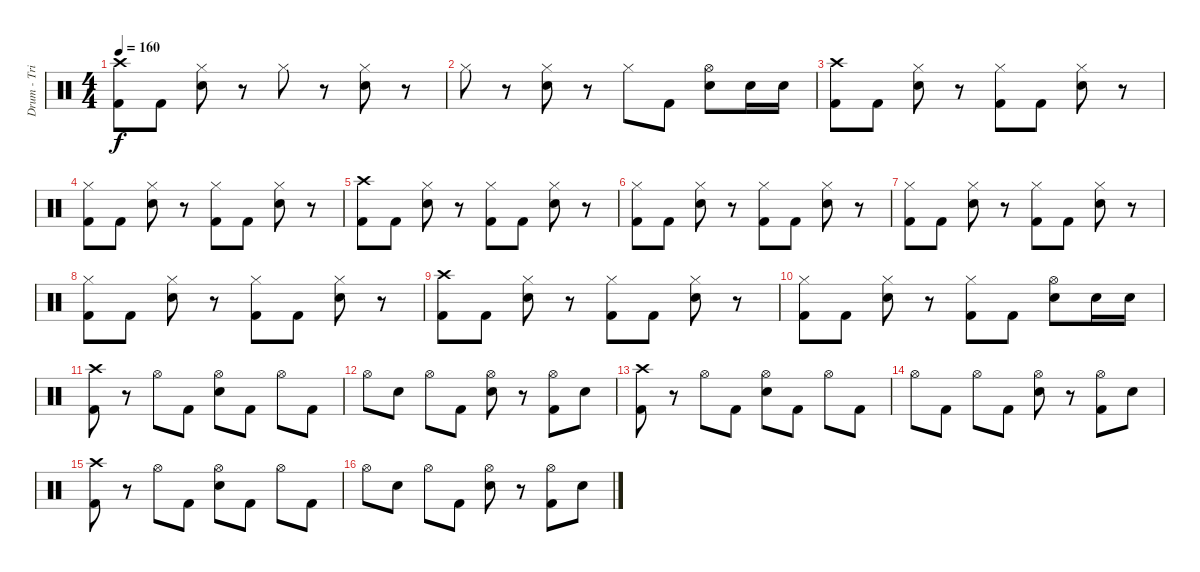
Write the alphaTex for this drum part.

\track ("Drum - Trian" "Drum - Tri") {instrument percussion}
\staff {score}
\articulation defaults
\ts (4 4)
\tempo 160
\clef neutral
\ks c
("Crash high (hit)" "Kick (hit) 2").8{dy f} "Kick (hit) 2".8 ("Hi-Hat (closed)" "Electric Snare (hit)").8 r.8 "Hi-Hat (closed)".8 r.8 ("Hi-Hat (closed)" "Electric Snare (hit)").8 r.8 |
"Hi-Hat (closed)".8 r.8 ("Hi-Hat (closed)" "Electric Snare (hit)").8 r.8 "Hi-Hat (closed)".8 "Kick (hit) 2".8 ("Hi-Hat (open)" "Electric Snare (hit)").8 "Electric Snare (hit)".16 "Electric Snare (hit)".16 |
("Crash high (hit)" "Kick (hit) 2").8 "Kick (hit) 2".8 ("Hi-Hat (closed)" "Electric Snare (hit)").8 r.8 ("Hi-Hat (closed)" "Kick (hit) 2").8 "Kick (hit) 2".8 ("Hi-Hat (closed)" "Electric Snare (hit)").8 r.8 |
("Hi-Hat (closed)" "Kick (hit) 2").8 "Kick (hit) 2".8 ("Hi-Hat (closed)" "Electric Snare (hit)").8 r.8 ("Hi-Hat (closed)" "Kick (hit) 2").8 "Kick (hit) 2".8 ("Hi-Hat (closed)" "Electric Snare (hit)").8 r.8 |
("Crash high (hit)" "Kick (hit) 2").8 "Kick (hit) 2".8 ("Hi-Hat (closed)" "Electric Snare (hit)").8 r.8 ("Hi-Hat (closed)" "Kick (hit) 2").8 "Kick (hit) 2".8 ("Hi-Hat (closed)" "Electric Snare (hit)").8 r.8 |
("Hi-Hat (closed)" "Kick (hit) 2").8 "Kick (hit) 2".8 ("Hi-Hat (closed)" "Electric Snare (hit)").8 r.8 ("Hi-Hat (closed)" "Kick (hit) 2").8 "Kick (hit) 2".8 ("Hi-Hat (closed)" "Electric Snare (hit)").8 r.8 |
("Hi-Hat (closed)" "Kick (hit) 2").8 "Kick (hit) 2".8 ("Hi-Hat (closed)" "Electric Snare (hit)").8 r.8 ("Hi-Hat (closed)" "Kick (hit) 2").8 "Kick (hit) 2".8 ("Hi-Hat (closed)" "Electric Snare (hit)").8 r.8 |
("Hi-Hat (closed)" "Kick (hit) 2").8 "Kick (hit) 2".8 ("Hi-Hat (closed)" "Electric Snare (hit)").8 r.8 ("Hi-Hat (closed)" "Kick (hit) 2").8 "Kick (hit) 2".8 ("Hi-Hat (closed)" "Electric Snare (hit)").8 r.8 |
("Crash high (hit)" "Kick (hit) 2").8 "Kick (hit) 2".8 ("Hi-Hat (closed)" "Electric Snare (hit)").8 r.8 ("Hi-Hat (closed)" "Kick (hit) 2").8 "Kick (hit) 2".8 ("Hi-Hat (closed)" "Electric Snare (hit)").8 r.8 |
("Hi-Hat (closed)" "Kick (hit) 2").8 "Kick (hit) 2".8 ("Hi-Hat (closed)" "Electric Snare (hit)").8 r.8 ("Hi-Hat (closed)" "Kick (hit) 2").8 "Kick (hit) 2".8 ("Hi-Hat (open)" "Electric Snare (hit)").8 "Electric Snare (hit)".16 "Electric Snare (hit)".16 |
("Crash high (hit)" "Kick (hit) 2").8 r.8 "Hi-Hat (open)".8 "Kick (hit) 2".8 ("Hi-Hat (open)" "Electric Snare (hit)").8 "Kick (hit) 2".8 "Hi-Hat (open)".8 "Kick (hit) 2".8 |
"Hi-Hat (open)".8 "Electric Snare (hit)".8 "Hi-Hat (open)".8 "Kick (hit) 2".8 ("Hi-Hat (open)" "Electric Snare (hit)").8 r.8 ("Hi-Hat (open)" "Kick (hit) 2").8 "Electric Snare (hit)".8 |
("Crash high (hit)" "Kick (hit) 2").8 r.8 "Hi-Hat (open)".8 "Kick (hit) 2".8 ("Hi-Hat (open)" "Electric Snare (hit)").8 "Kick (hit) 2".8 "Hi-Hat (open)".8 "Kick (hit) 2".8 |
"Hi-Hat (open)".8 "Kick (hit) 2".8 "Hi-Hat (open)".8 "Kick (hit) 2".8 ("Hi-Hat (open)" "Electric Snare (hit)").8 r.8 ("Hi-Hat (open)" "Kick (hit) 2").8 "Electric Snare (hit)".8 |
("Crash high (hit)" "Kick (hit) 2").8 r.8 "Hi-Hat (open)".8 "Kick (hit) 2".8 ("Hi-Hat (open)" "Electric Snare (hit)").8 "Kick (hit) 2".8 "Hi-Hat (open)".8 "Kick (hit) 2".8 |
"Hi-Hat (open)".8 "Electric Snare (hit)".8 "Hi-Hat (open)".8 "Kick (hit) 2".8 ("Hi-Hat (open)" "Electric Snare (hit)").8 r.8 ("Hi-Hat (open)" "Kick (hit) 2").8 "Electric Snare (hit)".8
